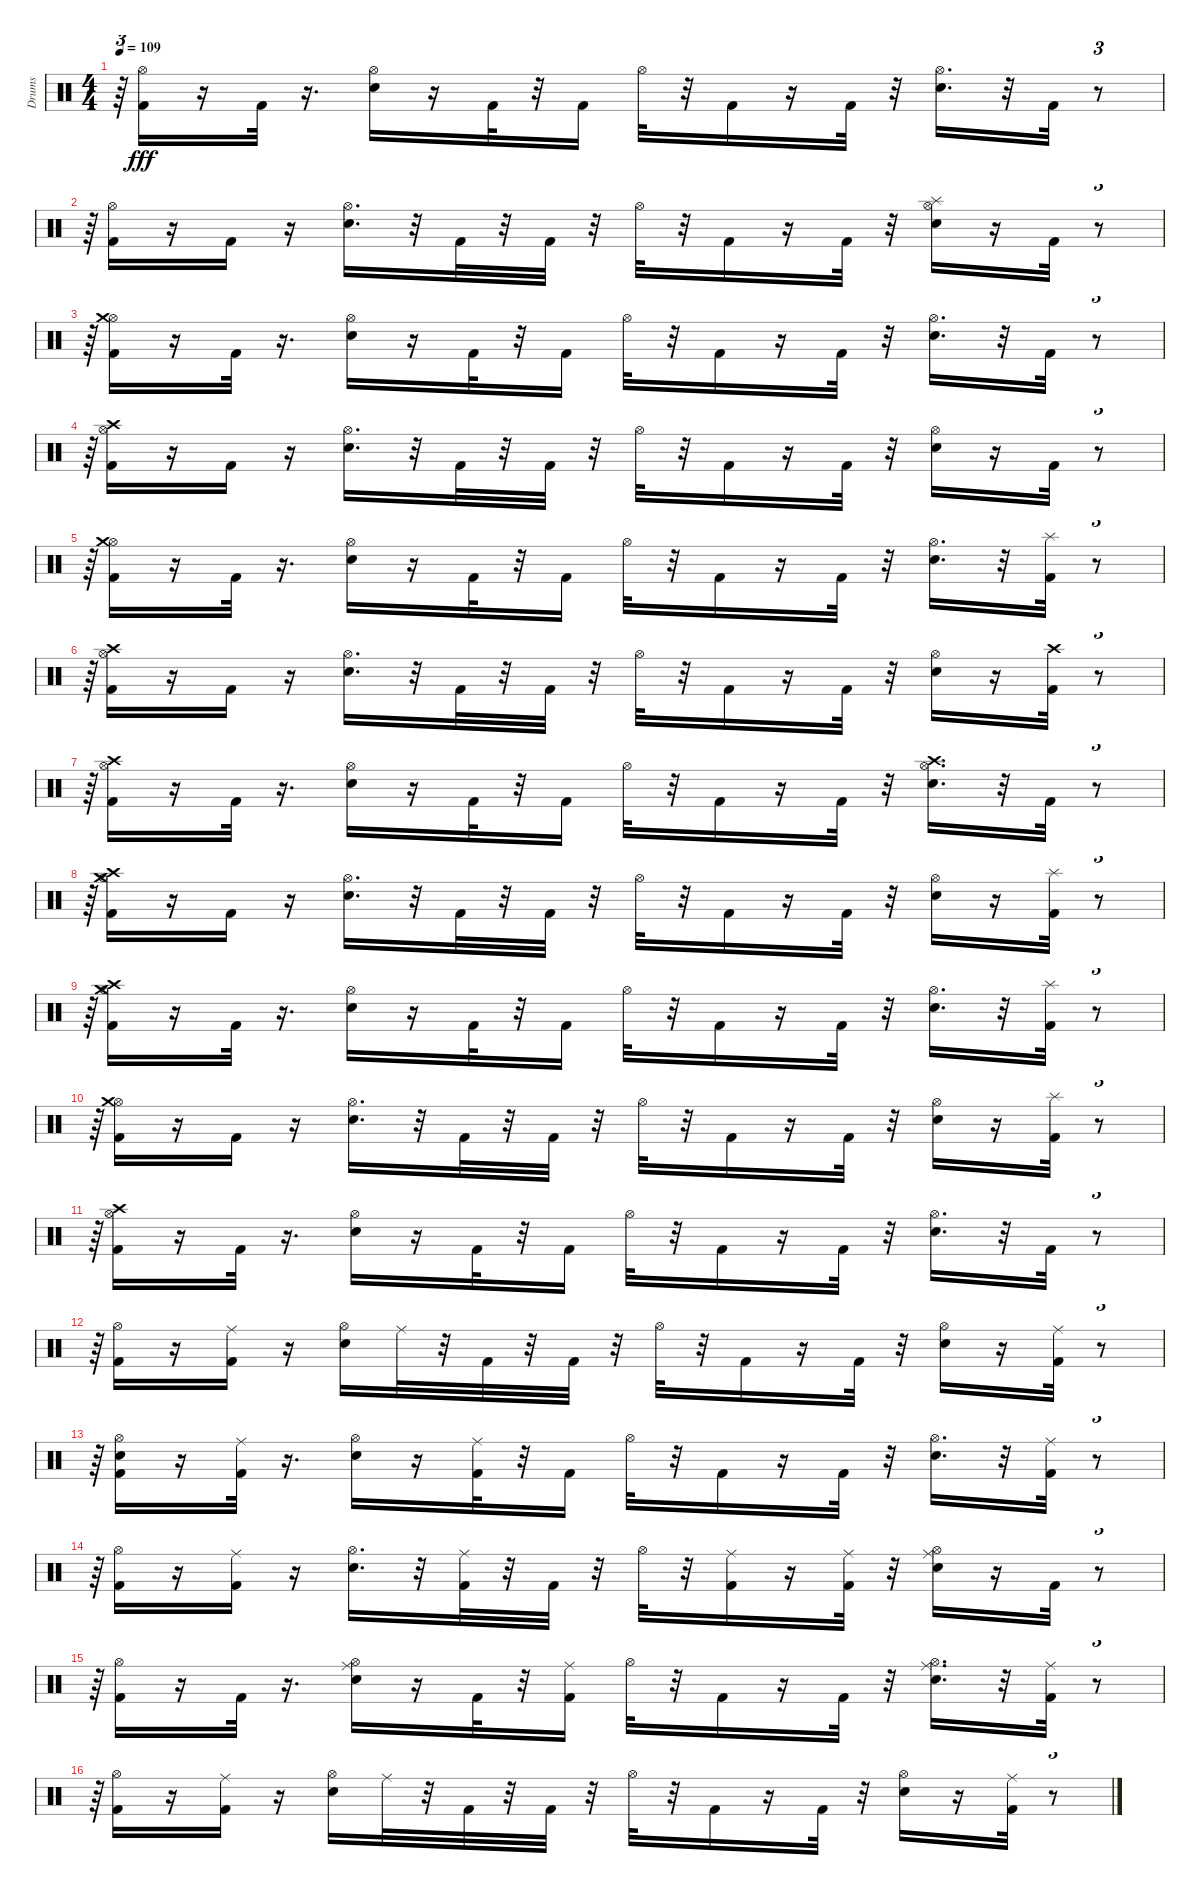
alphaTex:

\track ("Drums" "Drums") {instrument percussion}
\staff {score}
\articulation defaults
\ts (4 4)
\tempo 109
\clef neutral
\ks c
r.64{tu (3 2) dy fff} ("Kick (hit) 2" "Hi-Hat (open)").16 r.16 "Kick (hit) 2".32 r.16{d} ("Snare (hit) 2" "Hi-Hat (open)").16 r.16 "Kick (hit) 2".32 r.32 "Kick (hit) 2".16 "Hi-Hat (open)".32 r.32 "Kick (hit) 2".16 r.16 "Kick (hit) 2".32 r.32 ("Snare (hit) 2" "Hi-Hat (open)").16{d} r.32 "Kick (hit) 2".32 r.8{tu (3 2)} |
r.64{tu (3 2)} ("Kick (hit) 2" "Hi-Hat (open)").16 r.16 "Kick (hit) 2".16 r.16 ("Snare (hit) 2" "Hi-Hat (open)").16{d} r.32 "Kick (hit) 2".32 r.32 "Kick (hit) 2".32 r.32 "Hi-Hat (open)".32 r.32 "Kick (hit) 2".16 r.16 "Kick (hit) 2".32 r.32 ("Snare (hit) 2" "Hi-Hat (open)" "Splash (hit)").16 r.16 "Kick (hit) 2".32 r.8{tu (3 2)} |
r.64{tu (3 2)} ("Kick (hit) 2" "Hi-Hat (open)" "Crash medium (hit)").16 r.16 "Kick (hit) 2".32 r.16{d} ("Snare (hit) 2" "Hi-Hat (open)").16 r.16 "Kick (hit) 2".32 r.32 "Kick (hit) 2".16 "Hi-Hat (open)".32 r.32 "Kick (hit) 2".16 r.16 "Kick (hit) 2".32 r.32 ("Snare (hit) 2" "Hi-Hat (open)").16{d} r.32 "Kick (hit) 2".32 r.8{tu (3 2)} |
r.64{tu (3 2)} ("Kick (hit) 2" "Hi-Hat (open)" "Crash high (hit)").16 r.16 "Kick (hit) 2".16 r.16 ("Snare (hit) 2" "Hi-Hat (open)").16{d} r.32 "Kick (hit) 2".32 r.32 "Kick (hit) 2".32 r.32 "Hi-Hat (open)".32 r.32 "Kick (hit) 2".16 r.16 "Kick (hit) 2".32 r.32 ("Snare (hit) 2" "Hi-Hat (open)").16 r.16 "Kick (hit) 2".32 r.8{tu (3 2)} |
r.64{tu (3 2)} ("Kick (hit) 2" "Hi-Hat (open)" "Crash medium (hit)").16 r.16 "Kick (hit) 2".32 r.16{d} ("Snare (hit) 2" "Hi-Hat (open)").16 r.16 "Kick (hit) 2".32 r.32 "Kick (hit) 2".16 "Hi-Hat (open)".32 r.32 "Kick (hit) 2".16 r.16 "Kick (hit) 2".32 r.32 ("Snare (hit) 2" "Hi-Hat (open)").16{d} r.32 ("Kick (hit) 2" "Splash (hit)").32 r.8{tu (3 2)} |
r.64{tu (3 2)} ("Kick (hit) 2" "Hi-Hat (open)" "Crash high (hit)").16 r.16 "Kick (hit) 2".16 r.16 ("Snare (hit) 2" "Hi-Hat (open)").16{d} r.32 "Kick (hit) 2".32 r.32 "Kick (hit) 2".32 r.32 "Hi-Hat (open)".32 r.32 "Kick (hit) 2".16 r.16 "Kick (hit) 2".32 r.32 ("Snare (hit) 2" "Hi-Hat (open)").16 r.16 ("Kick (hit) 2" "Crash high (hit)").32 r.8{tu (3 2)} |
r.64{tu (3 2)} ("Kick (hit) 2" "Hi-Hat (open)" "Crash high (hit)").16 r.16 "Kick (hit) 2".32 r.16{d} ("Snare (hit) 2" "Hi-Hat (open)").16 r.16 "Kick (hit) 2".32 r.32 "Kick (hit) 2".16 "Hi-Hat (open)".32 r.32 "Kick (hit) 2".16 r.16 "Kick (hit) 2".32 r.32 ("Snare (hit) 2" "Hi-Hat (open)" "Crash high (hit)").16{d} r.32 "Kick (hit) 2".32 r.8{tu (3 2)} |
r.64{tu (3 2)} ("Kick (hit) 2" "Hi-Hat (open)" "Crash high (hit)" "Crash medium (hit)").16 r.16 "Kick (hit) 2".16 r.16 ("Snare (hit) 2" "Hi-Hat (open)").16{d} r.32 "Kick (hit) 2".32 r.32 "Kick (hit) 2".32 r.32 "Hi-Hat (open)".32 r.32 "Kick (hit) 2".16 r.16 "Kick (hit) 2".32 r.32 ("Snare (hit) 2" "Hi-Hat (open)").16 r.16 ("Kick (hit) 2" "Splash (hit)").32 r.8{tu (3 2)} |
r.64{tu (3 2)} ("Kick (hit) 2" "Hi-Hat (open)" "Crash high (hit)" "Crash medium (hit)").16 r.16 "Kick (hit) 2".32 r.16{d} ("Snare (hit) 2" "Hi-Hat (open)").16 r.16 "Kick (hit) 2".32 r.32 "Kick (hit) 2".16 "Hi-Hat (open)".32 r.32 "Kick (hit) 2".16 r.16 "Kick (hit) 2".32 r.32 ("Snare (hit) 2" "Hi-Hat (open)").16{d} r.32 ("Kick (hit) 2" "Splash (hit)").32 r.8{tu (3 2)} |
r.64{tu (3 2)} ("Kick (hit) 2" "Hi-Hat (open)" "Crash medium (hit)").16 r.16 "Kick (hit) 2".16 r.16 ("Snare (hit) 2" "Hi-Hat (open)").16{d} r.32 "Kick (hit) 2".32 r.32 "Kick (hit) 2".32 r.32 "Hi-Hat (open)".32 r.32 "Kick (hit) 2".16 r.16 "Kick (hit) 2".32 r.32 ("Snare (hit) 2" "Hi-Hat (open)").16 r.16 ("Kick (hit) 2" "Splash (hit)").32 r.8{tu (3 2)} |
r.64{tu (3 2)} ("Kick (hit) 2" "Hi-Hat (open)" "Crash high (hit)").16 r.16 "Kick (hit) 2".32 r.16{d} ("Snare (hit) 2" "Hi-Hat (open)").16 r.16 "Kick (hit) 2".32 r.32 "Kick (hit) 2".16 "Hi-Hat (open)".32 r.32 "Kick (hit) 2".16 r.16 "Kick (hit) 2".32 r.32 ("Snare (hit) 2" "Hi-Hat (open)").16{d} r.32 "Kick (hit) 2".32 r.8{tu (3 2)} |
r.64{tu (3 2)} ("Kick (hit) 2" "Hi-Hat (open)").16 r.16 ("Kick (hit) 2" "Ride (middle)").16 r.16 ("Snare (hit) 2" "Hi-Hat (open)").16 "Ride (middle)".32 r.32 "Kick (hit) 2".32 r.32 "Kick (hit) 2".32 r.32 "Hi-Hat (open)".32 r.32 "Kick (hit) 2".16 r.16 "Kick (hit) 2".32 r.32 ("Snare (hit) 2" "Hi-Hat (open)").16 r.16 ("Kick (hit) 2" "Ride (middle)").32 r.8{tu (3 2)} |
r.64{tu (3 2)} ("Kick (hit) 2" "Snare (hit) 2" "Hi-Hat (open)").16 r.16 ("Kick (hit) 2" "Ride (middle)").32 r.16{d} ("Snare (hit) 2" "Hi-Hat (open)").16 r.16 ("Kick (hit) 2" "Ride (middle)").32 r.32 "Kick (hit) 2".16 "Hi-Hat (open)".32 r.32 "Kick (hit) 2".16 r.16 "Kick (hit) 2".32 r.32 ("Snare (hit) 2" "Hi-Hat (open)").16{d} r.32 ("Kick (hit) 2" "Ride (middle)").32 r.8{tu (3 2)} |
r.64{tu (3 2)} ("Kick (hit) 2" "Hi-Hat (open)").16 r.16 ("Kick (hit) 2" "Ride (middle)").16 r.16 ("Snare (hit) 2" "Hi-Hat (open)").16{d} r.32 ("Kick (hit) 2" "Ride (middle)").32 r.32 "Kick (hit) 2".32 r.32 "Hi-Hat (open)".32 r.32 ("Kick (hit) 2" "Ride (middle)").16 r.16 ("Kick (hit) 2" "Ride (middle)").32 r.32 ("Snare (hit) 2" "Hi-Hat (open)" "Ride (middle)").16 r.16 "Kick (hit) 2".32 r.8{tu (3 2)} |
r.64{tu (3 2)} ("Kick (hit) 2" "Hi-Hat (open)").16 r.16 "Kick (hit) 2".32 r.16{d} ("Snare (hit) 2" "Hi-Hat (open)" "Ride (middle)").16 r.16 "Kick (hit) 2".32 r.32 ("Kick (hit) 2" "Ride (middle)").16 "Hi-Hat (open)".32 r.32 "Kick (hit) 2".16 r.16 "Kick (hit) 2".32 r.32 ("Snare (hit) 2" "Hi-Hat (open)" "Ride (middle)").16{d} r.32 ("Kick (hit) 2" "Ride (middle)").32 r.8{tu (3 2)} |
r.64{tu (3 2)} ("Kick (hit) 2" "Hi-Hat (open)").16 r.16 ("Kick (hit) 2" "Ride (middle)").16 r.16 ("Snare (hit) 2" "Hi-Hat (open)").16 "Ride (middle)".32 r.32 "Kick (hit) 2".32 r.32 "Kick (hit) 2".32 r.32 "Hi-Hat (open)".32 r.32 "Kick (hit) 2".16 r.16 "Kick (hit) 2".32 r.32 ("Snare (hit) 2" "Hi-Hat (open)").16 r.16 ("Kick (hit) 2" "Ride (middle)").32 r.8{tu (3 2)}
